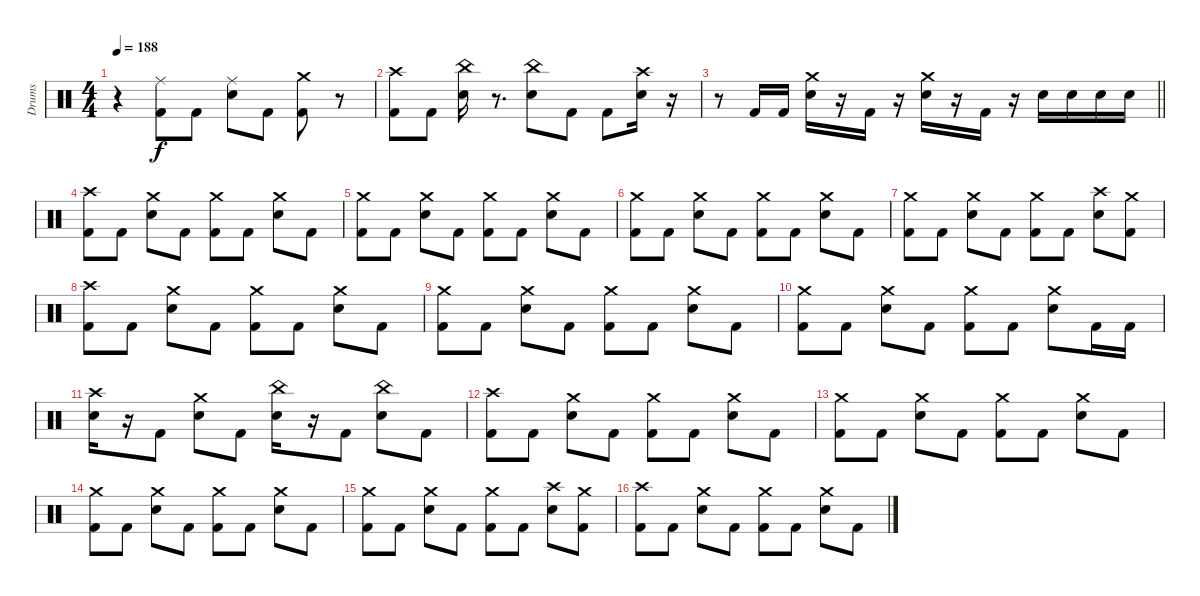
\track ("Drums" "Drums") {instrument percussion}
\staff {score}
\articulation defaults
\ts (4 4)
\tempo 188
\clef neutral
\ks c
r.4{dy f} ("Kick (hit) 2" "Ride (middle)").8 "Kick (hit) 2".8 ("Snare (hit) 2" "Ride (middle)").8 "Kick (hit) 2".8 ("Kick (hit) 2" "Crash medium (hit)").8 r.8 |
("Kick (hit) 2" "Crash high (hit)").8 "Kick (hit) 2".8 ("Snare (hit) 2" "China (hit)").16 r.8{d} ("Snare (hit) 2" "China (hit)").8 "Kick (hit) 2".8 "Kick (hit) 2".8 ("Snare (hit) 2" "Crash high (hit)").16 r.16 |
\barLineRight lightlight
r.8 "Kick (hit) 2".16 "Kick (hit) 2".16 ("Snare (hit) 2" "Crash medium (hit)").16 r.16 "Kick (hit) 2".16 r.16 ("Snare (hit) 2" "Crash medium (hit)").16 r.16 "Kick (hit) 2".16 r.16 "Snare (hit) 2".16 "Snare (hit) 2".16 "Snare (hit) 2".16 "Snare (hit) 2".16 |
\section ("" " ")
("Kick (hit) 2" "Crash high (hit)").8 "Kick (hit) 2".8 ("Snare (hit) 2" "Crash medium (hit)").8 "Kick (hit) 2".8 ("Kick (hit) 2" "Crash medium (hit)").8 "Kick (hit) 2".8 ("Snare (hit) 2" "Crash medium (hit)").8 "Kick (hit) 2".8 |
("Kick (hit) 2" "Crash medium (hit)").8 "Kick (hit) 2".8 ("Snare (hit) 2" "Crash medium (hit)").8 "Kick (hit) 2".8 ("Kick (hit) 2" "Crash medium (hit)").8 "Kick (hit) 2".8 ("Snare (hit) 2" "Crash medium (hit)").8 "Kick (hit) 2".8 |
("Kick (hit) 2" "Crash medium (hit)").8 "Kick (hit) 2".8 ("Snare (hit) 2" "Crash medium (hit)").8 "Kick (hit) 2".8 ("Kick (hit) 2" "Crash medium (hit)").8 "Kick (hit) 2".8 ("Snare (hit) 2" "Crash medium (hit)").8 "Kick (hit) 2".8 |
("Kick (hit) 2" "Crash medium (hit)").8 "Kick (hit) 2".8 ("Snare (hit) 2" "Crash medium (hit)").8 "Kick (hit) 2".8 ("Kick (hit) 2" "Crash medium (hit)").8 "Kick (hit) 2".8 ("Snare (hit) 2" "Crash high (hit)").8 ("Kick (hit) 2" "Crash medium (hit)").8 |
("Kick (hit) 2" "Crash high (hit)").8 "Kick (hit) 2".8 ("Snare (hit) 2" "Crash medium (hit)").8 "Kick (hit) 2".8 ("Kick (hit) 2" "Crash medium (hit)").8 "Kick (hit) 2".8 ("Snare (hit) 2" "Crash medium (hit)").8 "Kick (hit) 2".8 |
("Kick (hit) 2" "Crash medium (hit)").8 "Kick (hit) 2".8 ("Snare (hit) 2" "Crash medium (hit)").8 "Kick (hit) 2".8 ("Kick (hit) 2" "Crash medium (hit)").8 "Kick (hit) 2".8 ("Snare (hit) 2" "Crash medium (hit)").8 "Kick (hit) 2".8 |
("Kick (hit) 2" "Crash medium (hit)").8 "Kick (hit) 2".8 ("Snare (hit) 2" "Crash medium (hit)").8 "Kick (hit) 2".8 ("Kick (hit) 2" "Crash medium (hit)").8 "Kick (hit) 2".8 ("Snare (hit) 2" "Crash medium (hit)").8 "Kick (hit) 2".16 "Kick (hit) 2".16 |
("Snare (hit) 2" "Crash high (hit)").16 r.16 "Kick (hit) 2".8 ("Snare (hit) 2" "Crash medium (hit)").8 "Kick (hit) 2".8 ("Snare (hit) 2" "China (hit)").16 r.16 "Kick (hit) 2".8 ("Snare (hit) 2" "China (hit)").8 "Kick (hit) 2".8 |
("Kick (hit) 2" "Crash high (hit)").8 "Kick (hit) 2".8 ("Snare (hit) 2" "Crash medium (hit)").8 "Kick (hit) 2".8 ("Kick (hit) 2" "Crash medium (hit)").8 "Kick (hit) 2".8 ("Snare (hit) 2" "Crash medium (hit)").8 "Kick (hit) 2".8 |
("Kick (hit) 2" "Crash medium (hit)").8 "Kick (hit) 2".8 ("Snare (hit) 2" "Crash medium (hit)").8 "Kick (hit) 2".8 ("Kick (hit) 2" "Crash medium (hit)").8 "Kick (hit) 2".8 ("Snare (hit) 2" "Crash medium (hit)").8 "Kick (hit) 2".8 |
("Kick (hit) 2" "Crash medium (hit)").8 "Kick (hit) 2".8 ("Snare (hit) 2" "Crash medium (hit)").8 "Kick (hit) 2".8 ("Kick (hit) 2" "Crash medium (hit)").8 "Kick (hit) 2".8 ("Snare (hit) 2" "Crash medium (hit)").8 "Kick (hit) 2".8 |
("Kick (hit) 2" "Crash medium (hit)").8 "Kick (hit) 2".8 ("Snare (hit) 2" "Crash medium (hit)").8 "Kick (hit) 2".8 ("Kick (hit) 2" "Crash medium (hit)").8 "Kick (hit) 2".8 ("Snare (hit) 2" "Crash high (hit)").8 ("Kick (hit) 2" "Crash medium (hit)").8 |
("Kick (hit) 2" "Crash high (hit)").8 "Kick (hit) 2".8 ("Snare (hit) 2" "Crash medium (hit)").8 "Kick (hit) 2".8 ("Kick (hit) 2" "Crash medium (hit)").8 "Kick (hit) 2".8 ("Snare (hit) 2" "Crash medium (hit)").8 "Kick (hit) 2".8
